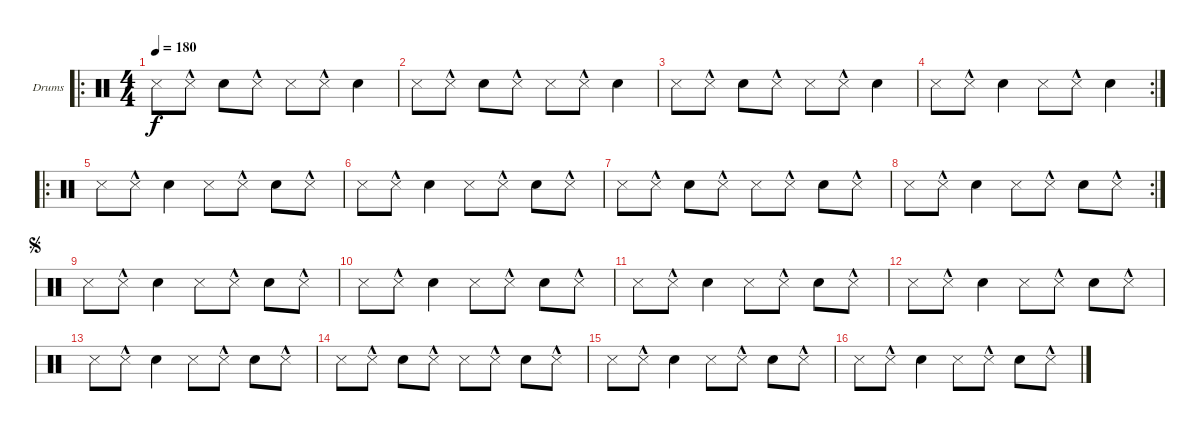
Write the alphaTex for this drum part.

\defaultSystemsLayout 4
\bracketExtendMode groupsimilarinstruments
\firstSystemTrackNameOrientation horizontal
\otherSystemsTrackNameOrientation horizontal
\track ("Drumkit" "Drums") {instrument percussion}
\staff {score}
\articulation defaults
\ro
\ts (4 4)
\tempo 180
\clef neutral
\scale
0.316998
\ks c "Snare (side stick) 3".8{dy f} "Snare (side stick) 3"{hac}.8 "Snare (hit) 2".8 "Snare (side stick) 3"{hac}.8 "Snare (side stick) 3".8 "Snare (side stick) 3"{hac}.8 "Snare (hit) 2".4
|
\scale
0.229709 "Snare (side stick) 3".8 "Snare (side stick) 3"{hac}.8 "Snare (hit) 2".8 "Snare (side stick) 3"{hac}.8 "Snare (side stick) 3".8 "Snare (side stick) 3"{hac}.8 "Snare (hit) 2".4 |
\scale
0.229709 "Snare (side stick) 3".8 "Snare (side stick) 3"{hac}.8 "Snare (hit) 2".8 "Snare (side stick) 3"{hac}.8 "Snare (side stick) 3".8 "Snare (side stick) 3"{hac}.8 "Snare (hit) 2".4 |
\rc 2
\scale
0.223583 "Snare (side stick) 3".8 "Snare (side stick) 3"{hac}.8 "Snare (hit) 2".4 "Snare (side stick) 3".8 "Snare (side stick) 3"{hac}.8 "Snare (hit) 2".4 |
\ro
\scale
0.257962 "Snare (side stick) 3".8 "Snare (side stick) 3"{hac}.8 "Snare (hit) 2".4 "Snare (side stick) 3".8 "Snare (side stick) 3"{hac}.8 "Snare (hit) 2".8 "Snare (side stick) 3"{hac}.8 |
\scale
0.238854 "Snare (side stick) 3".8 "Snare (side stick) 3"{hac}.8 "Snare (hit) 2".4 "Snare (side stick) 3".8 "Snare (side stick) 3"{hac}.8 "Snare (hit) 2".8 "Snare (side stick) 3"{hac}.8 |
\scale
0.254777 "Snare (side stick) 3".8 "Snare (side stick) 3"{hac}.8 "Snare (hit) 2".8 "Snare (side stick) 3"{hac}.8 "Snare (side stick) 3".8 "Snare (side stick) 3"{hac}.8 "Snare (hit) 2".8 "Snare (side stick) 3"{hac}.8 |
\rc 2
\scale
0.248408 "Snare (side stick) 3".8 "Snare (side stick) 3"{hac}.8 "Snare (hit) 2".4 "Snare (side stick) 3".8 "Snare (side stick) 3"{hac}.8 "Snare (hit) 2".8 "Snare (side stick) 3"{hac}.8 |
\jump segno
\scale
0.25 "Snare (side stick) 3".8 "Snare (side stick) 3"{hac}.8 "Snare (hit) 2".4 "Snare (side stick) 3".8 "Snare (side stick) 3"{hac}.8 "Snare (hit) 2".8 "Snare (side stick) 3"{hac}.8 |
\scale
0.25 "Snare (side stick) 3".8 "Snare (side stick) 3"{hac}.8 "Snare (hit) 2".4 "Snare (side stick) 3".8 "Snare (side stick) 3"{hac}.8 "Snare (hit) 2".8 "Snare (side stick) 3"{hac}.8 |
\scale
0.25 "Snare (side stick) 3".8 "Snare (side stick) 3"{hac}.8 "Snare (hit) 2".4 "Snare (side stick) 3".8 "Snare (side stick) 3"{hac}.8 "Snare (hit) 2".8 "Snare (side stick) 3"{hac}.8 |
\scale
0.25 "Snare (side stick) 3".8 "Snare (side stick) 3"{hac}.8 "Snare (hit) 2".4 "Snare (side stick) 3".8 "Snare (side stick) 3"{hac}.8 "Snare (hit) 2".8 "Snare (side stick) 3"{hac}.8 |
\scale
0.245902 "Snare (side stick) 3".8 "Snare (side stick) 3"{hac}.8 "Snare (hit) 2".4 "Snare (side stick) 3".8 "Snare (side stick) 3"{hac}.8 "Snare (hit) 2".8 "Snare (side stick) 3"{hac}.8 |
\scale
0.262295 "Snare (side stick) 3".8 "Snare (side stick) 3"{hac}.8 "Snare (hit) 2".8 "Snare (side stick) 3"{hac}.8 "Snare (side stick) 3".8 "Snare (side stick) 3"{hac}.8 "Snare (hit) 2".8 "Snare (side stick) 3"{hac}.8 |
\scale
0.245902 "Snare (side stick) 3".8 "Snare (side stick) 3"{hac}.8 "Snare (hit) 2".4 "Snare (side stick) 3".8 "Snare (side stick) 3"{hac}.8 "Snare (hit) 2".8 "Snare (side stick) 3"{hac}.8 |
\scale
0.245902 "Snare (side stick) 3".8 "Snare (side stick) 3"{hac}.8 "Snare (hit) 2".4 "Snare (side stick) 3".8 "Snare (side stick) 3"{hac}.8 "Snare (hit) 2".8 "Snare (side stick) 3"{hac}.8
